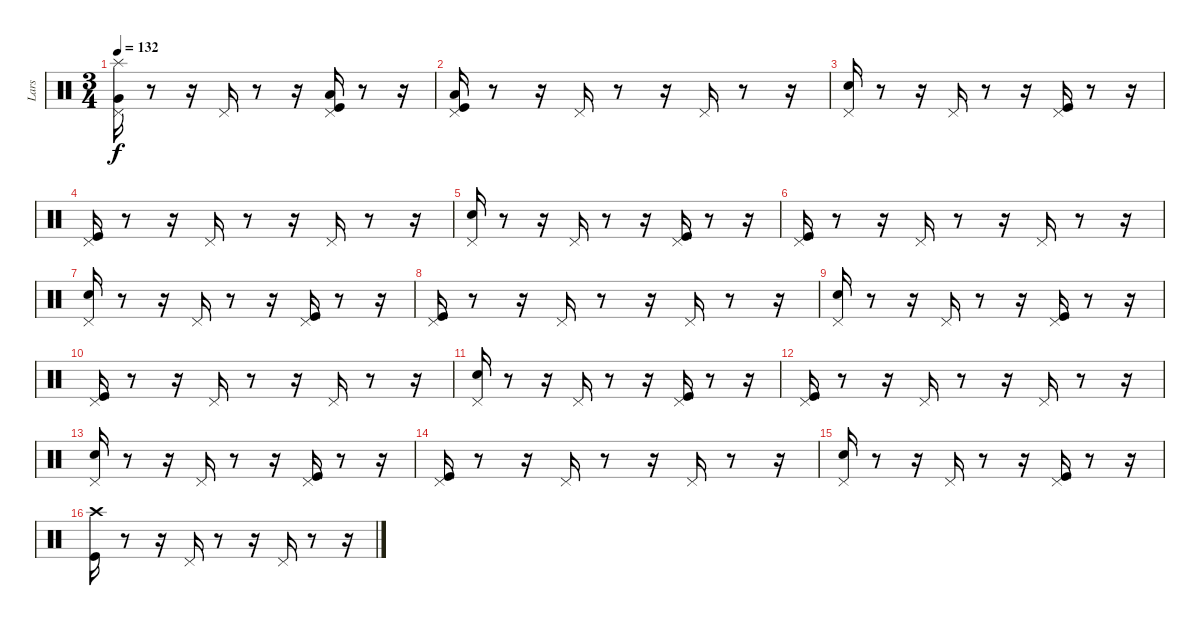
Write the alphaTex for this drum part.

\track ("Lars" "Lars") {instrument percussion}
\staff {score}
\articulation defaults
\ts (3 4)
\tempo 132
\clef neutral
\ks c
("Pedal Hi-Hat (hit)" "Very Low Tom (hit)" "Splash (hit)").16{dy f} r.8 r.16 "Pedal Hi-Hat (hit)".16 r.8 r.16 ("Pedal Hi-Hat (hit)" "Low Floor Tom (hit)" "Kick (hit)").16 r.8 r.16 |
("Pedal Hi-Hat (hit)" "Low Floor Tom (hit)" "Kick (hit)").16 r.8 r.16 "Pedal Hi-Hat (hit)".16 r.8 r.16 "Pedal Hi-Hat (hit)".16 r.8 r.16 |
("Pedal Hi-Hat (hit)" "Snare (hit) 2").16 r.8 r.16 "Pedal Hi-Hat (hit)".16 r.8 r.16 ("Pedal Hi-Hat (hit)" "Kick (hit)").16 r.8 r.16 |
("Pedal Hi-Hat (hit)" "Kick (hit)").16 r.8 r.16 "Pedal Hi-Hat (hit)".16 r.8 r.16 "Pedal Hi-Hat (hit)".16 r.8 r.16 |
("Pedal Hi-Hat (hit)" "Snare (hit) 2").16 r.8 r.16 "Pedal Hi-Hat (hit)".16 r.8 r.16 ("Pedal Hi-Hat (hit)" "Kick (hit)").16 r.8 r.16 |
("Pedal Hi-Hat (hit)" "Kick (hit)").16 r.8 r.16 "Pedal Hi-Hat (hit)".16 r.8 r.16 "Pedal Hi-Hat (hit)".16 r.8 r.16 |
("Pedal Hi-Hat (hit)" "Snare (hit) 2").16 r.8 r.16 "Pedal Hi-Hat (hit)".16 r.8 r.16 ("Pedal Hi-Hat (hit)" "Kick (hit)").16 r.8 r.16 |
("Pedal Hi-Hat (hit)" "Kick (hit)").16 r.8 r.16 "Pedal Hi-Hat (hit)".16 r.8 r.16 "Pedal Hi-Hat (hit)".16 r.8 r.16 |
("Pedal Hi-Hat (hit)" "Snare (hit) 2").16 r.8 r.16 "Pedal Hi-Hat (hit)".16 r.8 r.16 ("Pedal Hi-Hat (hit)" "Kick (hit)").16 r.8 r.16 |
("Pedal Hi-Hat (hit)" "Kick (hit)").16 r.8 r.16 "Pedal Hi-Hat (hit)".16 r.8 r.16 "Pedal Hi-Hat (hit)".16 r.8 r.16 |
("Pedal Hi-Hat (hit)" "Snare (hit) 2").16 r.8 r.16 "Pedal Hi-Hat (hit)".16 r.8 r.16 ("Pedal Hi-Hat (hit)" "Kick (hit)").16 r.8 r.16 |
("Pedal Hi-Hat (hit)" "Kick (hit)").16 r.8 r.16 "Pedal Hi-Hat (hit)".16 r.8 r.16 "Pedal Hi-Hat (hit)".16 r.8 r.16 |
("Pedal Hi-Hat (hit)" "Snare (hit) 2").16 r.8 r.16 "Pedal Hi-Hat (hit)".16 r.8 r.16 ("Pedal Hi-Hat (hit)" "Kick (hit)").16 r.8 r.16 |
("Pedal Hi-Hat (hit)" "Kick (hit)").16 r.8 r.16 "Pedal Hi-Hat (hit)".16 r.8 r.16 "Pedal Hi-Hat (hit)".16 r.8 r.16 |
("Pedal Hi-Hat (hit)" "Snare (hit) 2").16 r.8 r.16 "Pedal Hi-Hat (hit)".16 r.8 r.16 ("Pedal Hi-Hat (hit)" "Kick (hit)").16 r.8 r.16 |
("Crash high (hit)" "Kick (hit)").16 r.8 r.16 "Pedal Hi-Hat (hit)".16 r.8 r.16 "Pedal Hi-Hat (hit)".16 r.8 r.16
